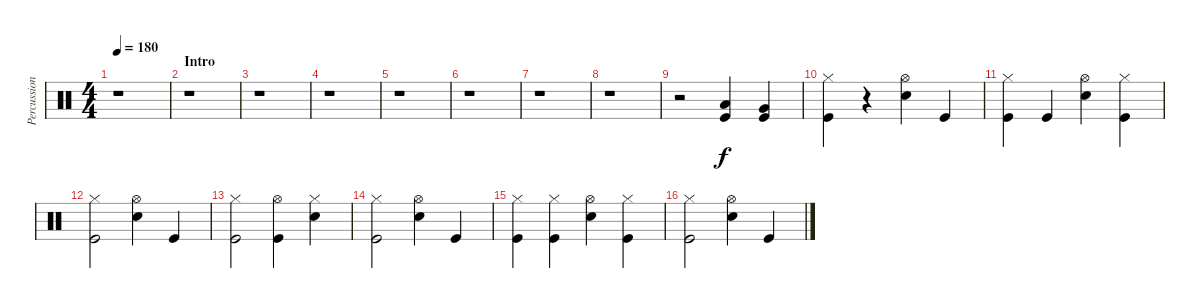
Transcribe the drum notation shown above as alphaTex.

\track ("Percussion" "Percussion") {instrument percussion}
\staff {score}
\articulation defaults
\ts (4 4)
\tempo 180
\clef neutral
\ks c
r.1{dy f} |
\section ("" "Intro")
r.1 |
r.1 |
r.1 |
r.1 |
r.1 |
r.1 |
r.1 |
r.2 ("Low Tom (hit)" "Kick (hit)").4 ("Very Low Tom (hit)" "Kick (hit)").4 |
("Hi-Hat (closed)" "Kick (hit)").4 r.4 ("Hi-Hat (open)" "Snare (hit) 2").4 "Kick (hit)".4 |
("Hi-Hat (closed)" "Kick (hit)").4 "Kick (hit)".4 ("Hi-Hat (open)" "Snare (hit) 2").4 ("Hi-Hat (closed)" "Kick (hit)").4 |
("Hi-Hat (closed)" "Kick (hit)").2 ("Hi-Hat (open)" "Snare (hit) 2").4 "Kick (hit)".4 |
("Hi-Hat (closed)" "Kick (hit)").2 ("Hi-Hat (open)" "Kick (hit)").4 ("Hi-Hat (closed)" "Snare (hit) 2").4 |
("Hi-Hat (closed)" "Kick (hit)").2 ("Hi-Hat (open)" "Snare (hit) 2").4 "Kick (hit)".4 |
("Hi-Hat (closed)" "Kick (hit)").4 ("Hi-Hat (closed)" "Kick (hit)").4 ("Hi-Hat (open)" "Snare (hit) 2").4 ("Hi-Hat (closed)" "Kick (hit)").4 |
("Hi-Hat (closed)" "Kick (hit)").2 ("Hi-Hat (open)" "Snare (hit) 2").4 "Kick (hit)".4
